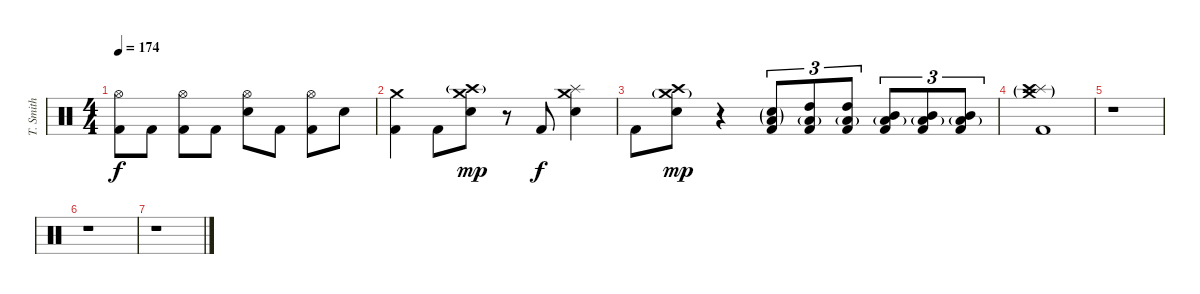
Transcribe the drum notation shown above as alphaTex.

\track ("T. Smith" "T. Smith") {instrument percussion}
\staff {score}
\articulation defaults
\ts (4 4)
\tempo 174
\clef neutral
\ks c
("Hi-Hat (open)" "Kick (hit) 2").8{dy f} "Kick (hit) 2".8 ("Hi-Hat (open)" "Kick (hit) 2").8 "Kick (hit) 2".8 ("Hi-Hat (open)" "Electric Snare (hit)").8 "Kick (hit) 2".8 ("Hi-Hat (open)" "Kick (hit) 2").8 "Electric Snare (hit)".8 |
("Crash medium (hit)" "Kick (hit) 2").4 "Kick (hit) 2".8 ("Crash high (hit)"{g} "Crash medium (hit)" "Electric Snare (hit)").8{dy mp} r.8 "Kick (hit) 2".8{dy f} ("Crash medium (hit)" "Splash (hit)" "Electric Snare (hit)").4 |
"Kick (hit) 2".8 ("Crash high (hit)" "Crash medium (hit)"{g} "Electric Snare (hit)").8{dy mp} r.4 ("Low Tom (hit)"{g} "Electric Snare (hit)"{g} "Kick (hit) 2").8{tu (3 2)} ("Low Tom (hit)"{g} "High Tom (hit)" "Kick (hit) 2").8{tu (3 2)} ("Low Tom (hit)"{g} "High Tom (hit)" "Kick (hit) 2").8{tu (3 2)} ("Low Tom (hit)"{g} "Mid Tom (hit)" "Kick (hit) 2").8{tu (3 2)} ("Low Tom (hit)"{g} "Mid Tom (hit)" "Kick (hit) 2").8{tu (3 2)} ("Low Tom (hit)"{g} "Mid Tom (hit)" "Kick (hit) 2").8{tu (3 2)} |
("Splash (hit)" "Crash medium (hit)"{g} "Crash high (hit)"{g} "Kick (hit) 2").1 |
r.1 |
r.1 |
r.1
